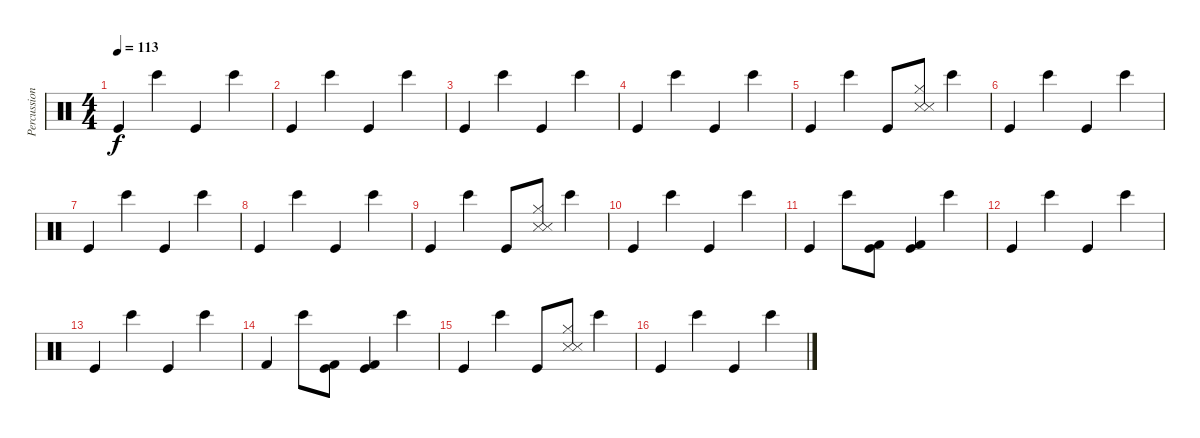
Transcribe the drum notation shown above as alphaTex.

\track ("Percussion" "Percussion") {instrument percussion}
\staff {score}
\articulation defaults
\ts (4 4)
\tempo 113
\clef neutral
\ks c "Kick (hit)".4{dy f} "Bongo High (hit)".4 "Kick (hit)".4 "Bongo High (hit)".4
|
"Kick (hit)".4 "Bongo High (hit)".4 "Kick (hit)".4 "Bongo High (hit)".4 |
"Kick (hit)".4 "Bongo High (hit)".4 "Kick (hit)".4 "Bongo High (hit)".4 |
"Kick (hit)".4 "Bongo High (hit)".4 "Kick (hit)".4 "Bongo High (hit)".4 |
"Kick (hit)".4 "Bongo High (hit)".4 "Kick (hit)".8 ("Metronome (hit)" "Hi-Hat (closed)" "Snare (side stick) 3").8 "Bongo High (hit)".4 |
"Kick (hit)".4 "Bongo High (hit)".4 "Kick (hit)".4 "Bongo High (hit)".4 |
"Kick (hit)".4 "Bongo High (hit)".4 "Kick (hit)".4 "Bongo High (hit)".4 |
"Kick (hit)".4 "Bongo High (hit)".4 "Kick (hit)".4 "Bongo High (hit)".4 |
"Kick (hit)".4 "Bongo High (hit)".4 "Kick (hit)".8 ("Metronome (hit)" "Hi-Hat (closed)" "Snare (side stick) 3").8 "Bongo High (hit)".4 |
"Kick (hit)".4 "Bongo High (hit)".4 "Kick (hit)".4 "Bongo High (hit)".4 |
"Kick (hit)".4 "Bongo High (hit)".8 ("Kick (hit)" "Kick (hit) 2").8 ("Kick (hit)" "Kick (hit) 2").4 "Bongo High (hit)".4 |
"Kick (hit)".4 "Bongo High (hit)".4 "Kick (hit)".4 "Bongo High (hit)".4 |
"Kick (hit)".4 "Bongo High (hit)".4 "Kick (hit)".4 "Bongo High (hit)".4 |
"Kick (hit) 2".4 "Bongo High (hit)".8 ("Kick (hit) 2" "Kick (hit)").8 ("Kick (hit)" "Kick (hit) 2").4 "Bongo High (hit)".4 |
"Kick (hit)".4 "Bongo High (hit)".4 "Kick (hit)".8 ("Metronome (hit)" "Hi-Hat (closed)" "Snare (side stick) 3").8 "Bongo High (hit)".4 |
"Kick (hit)".4 "Bongo High (hit)".4 "Kick (hit)".4 "Bongo High (hit)".4
